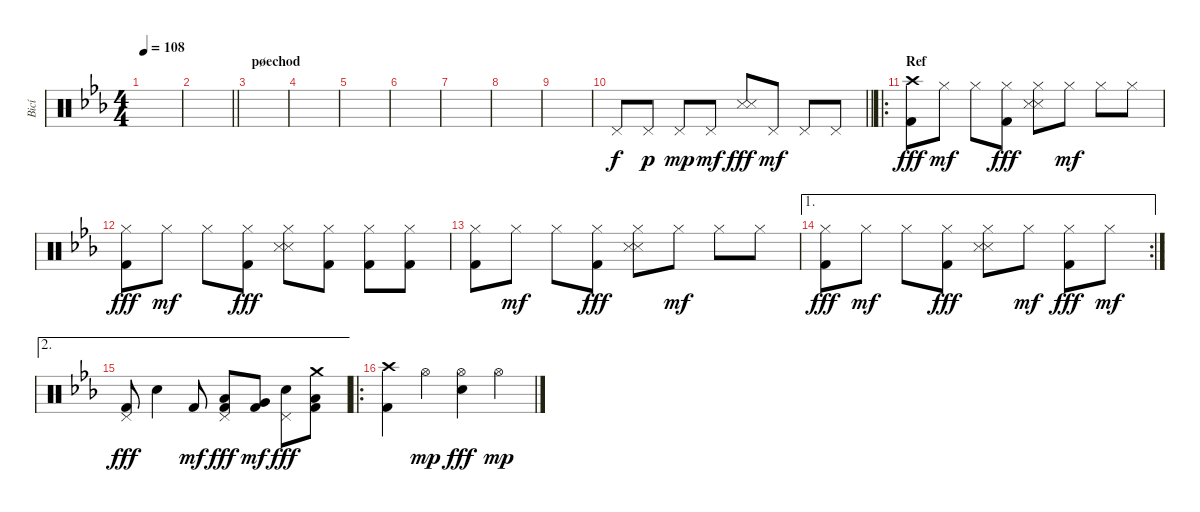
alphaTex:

\track ("Bicí" "Bicí") {instrument percussion}
\staff {score}
\articulation defaults
\ts (4 4)
\tempo 108
\clef neutral
\ks eb
|
\barLineRight lightlight
|
\section ("" "pøechod")
|
|
|
|
|
|
|
\barLineRight lightlight "Pedal Hi-Hat (hit)".8{volume 16} "Pedal Hi-Hat (hit)".8{dy p} "Pedal Hi-Hat (hit)".8{dy mp} "Pedal Hi-Hat (hit)".8{dy mf}
("Metronome (hit)" "Snare (side stick) 3").8{dy fff} "Pedal Hi-Hat (hit)".8{dy mf} "Pedal Hi-Hat (hit)".8 "Pedal Hi-Hat (hit)".8 |
\ro
\section ("" "Ref")
("Crash high (hit)" "Kick (hit) 2").8{dy fff} "Hi-Hat (closed)".8{dy mf} "Hi-Hat (closed)".8 ("Hi-Hat (closed)" "Kick (hit) 2").8{dy fff} ("Hi-Hat (closed)" "Snare (side stick) 3" "Metronome (hit)").8 "Hi-Hat (closed)".8{dy mf} "Hi-Hat (closed)".8 "Hi-Hat (closed)".8 |
("Hi-Hat (closed)" "Kick (hit) 2").8{dy fff} "Hi-Hat (closed)".8{dy mf} "Hi-Hat (closed)".8 ("Hi-Hat (closed)" "Kick (hit) 2").8{dy fff} ("Hi-Hat (closed)" "Snare (side stick) 3" "Metronome (hit)").8 ("Hi-Hat (closed)" "Kick (hit) 2").8 ("Hi-Hat (closed)" "Kick (hit) 2").8 ("Hi-Hat (closed)" "Kick (hit) 2").8 |
("Hi-Hat (closed)" "Kick (hit) 2").8 "Hi-Hat (closed)".8{dy mf} "Hi-Hat (closed)".8 ("Hi-Hat (closed)" "Kick (hit) 2").8{dy fff} ("Hi-Hat (closed)" "Snare (side stick) 3" "Metronome (hit)").8 "Hi-Hat (closed)".8{dy mf} "Hi-Hat (closed)".8 "Hi-Hat (closed)".8 |
\ae 1
\rc 2
("Hi-Hat (closed)" "Kick (hit) 2").8{dy fff} "Hi-Hat (closed)".8{dy mf} "Hi-Hat (closed)".8 ("Hi-Hat (closed)" "Kick (hit) 2").8{dy fff} ("Hi-Hat (closed)" "Snare (side stick) 3" "Metronome (hit)").8 "Hi-Hat (closed)".8{dy mf} ("Hi-Hat (closed)" "Kick (hit) 2").8{dy fff} "Hi-Hat (closed)".8{dy mf} |
\ae 2
("Kick (hit) 2" "Pedal Hi-Hat (hit)").8{dy fff} "Electric Snare (hit)".4 "Kick (hit) 2".8{dy mf} ("Kick (hit) 2" "Low Tom (hit)" "Pedal Hi-Hat (hit)").8{dy fff} ("Kick (hit) 2" "Very Low Tom (hit)").8{dy mf} ("Snare (hit) 2" "Pedal Hi-Hat (hit)").8{dy fff} ("Kick (hit) 2" "Low Floor Tom (hit)" "Crash medium (hit)").8 |
\ro
("Kick (hit) 2" "Crash high (hit)").4 "Hi-Hat (open)".4{dy mp} ("Hi-Hat (open)" "Snare (hit) 2").4{dy fff} "Hi-Hat (open)".4{dy mp}
